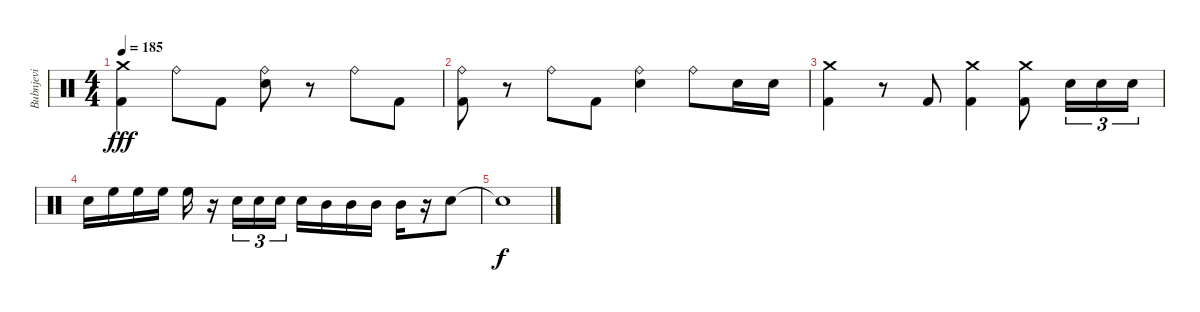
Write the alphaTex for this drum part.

\track ("Bubnjevi" "Bubnjevi") {instrument percussion}
\staff {score}
\articulation defaults
\ts (4 4)
\tempo 185
\clef neutral
\ks c
("Crash medium (hit)" "Kick (hit) 2").4{dy fff} "Ride (bell)".8 "Kick (hit) 2".8 ("Ride (bell)" "Snare (hit) 2").8 r.8 "Ride (bell)".8 "Kick (hit) 2".8 |
("Ride (bell)" "Kick (hit) 2").8 r.8 "Ride (bell)".8 "Kick (hit) 2".8 ("Ride (bell)" "Snare (hit) 2").4 "Ride (bell)".8 "Snare (hit) 2".16 "Snare (hit) 2".16 |
("Crash medium (hit)" "Kick (hit) 2").4 r.8 "Kick (hit) 2".8 ("Crash medium (hit)" "Kick (hit) 2").4 ("Crash medium (hit)" "Kick (hit) 2").8 "Snare (hit) 2".16{tu (3 2)} "Snare (hit) 2".16{tu (3 2)} "Snare (hit) 2".16{tu (3 2)} |
"Snare (hit) 2".16 "High Floor Tom (hit)".16 "High Floor Tom (hit)".16 "High Floor Tom (hit)".16 "High Floor Tom (hit)".16 r.16 "Snare (hit) 2".16{tu (3 2)} "Snare (hit) 2".16{tu (3 2)} "Snare (hit) 2".16{tu (3 2)} "Snare (hit) 2".16 "Mid Tom (hit)".16 "Mid Tom (hit)".16 "Mid Tom (hit)".16 "Mid Tom (hit)".16 r.16 "Snare (hit) 2".8 |
"Snare (hit)"{t}.1{dy f}
